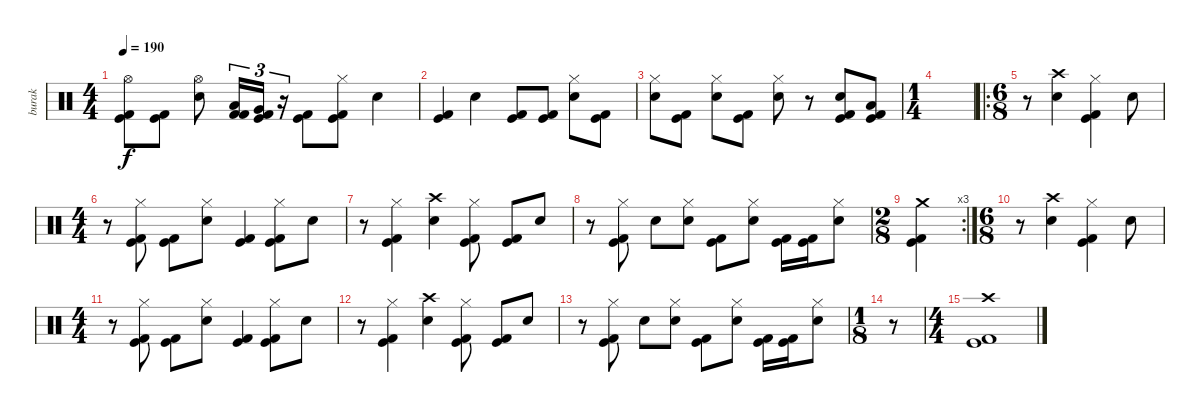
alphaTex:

\track ("burak" "burak") {instrument percussion}
\staff {score}
\articulation defaults
\ts (4 4)
\tempo 190
\clef neutral
\ks c
("Hi-Hat (open)" "Kick (hit)" "Kick (hit) 2").8{dy f} ("Kick (hit)" "Kick (hit) 2").8 ("Electric Snare (hit)" "Hi-Hat (open)").8 ("Low Tom (hit)" "Kick (hit) 2" "Kick (hit) 2").16{tu (3 2)} ("Very Low Tom (hit)" "Kick (hit)" "Kick (hit) 2").16{tu (3 2)} r.16{tu (3 2)} ("Kick (hit)" "Kick (hit) 2").8 ("Hi-Hat (closed)" "Kick (hit)" "Kick (hit) 2").8 "Electric Snare (hit)".4 |
("Kick (hit)" "Kick (hit) 2").4 "Electric Snare (hit)".4 ("Kick (hit)" "Kick (hit) 2").8 ("Kick (hit)" "Kick (hit) 2").8 ("Hi-Hat (closed)" "Electric Snare (hit)").8 ("Kick (hit)" "Kick (hit) 2").8 |
("Hi-Hat (closed)" "Electric Snare (hit)").8 ("Kick (hit)" "Kick (hit) 2").8 ("Hi-Hat (closed)" "Electric Snare (hit)").8 ("Kick (hit)" "Kick (hit) 2").8 ("Hi-Hat (closed)" "Electric Snare (hit)").8 r.8 ("Electric Snare (hit)" "Kick (hit)" "Kick (hit) 2").8 ("Low Tom (hit)" "Kick (hit)" "Kick (hit) 2").8 |
\ts (1 4)
|
\ro
\ts (6 8)
r.8 ("Electric Snare (hit)" "Crash high (hit)").4 ("Hi-Hat (closed)" "Kick (hit)" "Kick (hit) 2").4 "Electric Snare (hit)".8 |
\ts (4 4)
r.8 ("Hi-Hat (closed)" "Kick (hit)" "Kick (hit) 2").8 ("Kick (hit)" "Kick (hit) 2").8 ("Electric Snare (hit)" "Hi-Hat (closed)").8 ("Kick (hit)" "Kick (hit) 2").4 ("Hi-Hat (closed)" "Kick (hit)" "Kick (hit) 2").8 "Electric Snare (hit)".8 |
r.8 ("Hi-Hat (closed)" "Kick (hit)" "Kick (hit) 2").4 ("Electric Snare (hit)" "Crash high (hit)").4 ("Hi-Hat (closed)" "Kick (hit)" "Kick (hit) 2").8 ("Kick (hit)" "Kick (hit) 2").8 "Electric Snare (hit)".8 |
r.8 ("Hi-Hat (closed)" "Kick (hit)" "Kick (hit) 2").8 "Electric Snare (hit)".8 ("Electric Snare (hit)" "Hi-Hat (closed)").8 ("Kick (hit)" "Kick (hit) 2").8 ("Electric Snare (hit)" "Hi-Hat (closed)").8 ("Kick (hit)" "Kick (hit) 2").16 ("Kick (hit)" "Kick (hit) 2").16 ("Hi-Hat (closed)" "Electric Snare (hit)").8 |
\rc 3
\ts (2 8)
("Crash medium (hit)" "Kick (hit)" "Kick (hit) 2").4 |
\ts (6 8)
r.8 ("Electric Snare (hit)" "Crash high (hit)").4 ("Hi-Hat (closed)" "Kick (hit)" "Kick (hit) 2").4 "Electric Snare (hit)".8 |
\ts (4 4)
r.8 ("Hi-Hat (closed)" "Kick (hit)" "Kick (hit) 2").8 ("Kick (hit)" "Kick (hit) 2").8 ("Electric Snare (hit)" "Hi-Hat (closed)").8 ("Kick (hit)" "Kick (hit) 2").4 ("Hi-Hat (closed)" "Kick (hit)" "Kick (hit) 2").8 "Electric Snare (hit)".8 |
r.8 ("Hi-Hat (closed)" "Kick (hit)" "Kick (hit) 2").4 ("Electric Snare (hit)" "Crash high (hit)").4 ("Hi-Hat (closed)" "Kick (hit)" "Kick (hit) 2").8 ("Kick (hit)" "Kick (hit) 2").8 "Electric Snare (hit)".8 |
r.8 ("Hi-Hat (closed)" "Kick (hit)" "Kick (hit) 2").8 "Electric Snare (hit)".8 ("Electric Snare (hit)" "Hi-Hat (closed)").8 ("Kick (hit)" "Kick (hit) 2").8 ("Electric Snare (hit)" "Hi-Hat (closed)").8 ("Kick (hit)" "Kick (hit) 2").16 ("Kick (hit)" "Kick (hit) 2").16 ("Hi-Hat (closed)" "Electric Snare (hit)").8 |
\ts (1 8)
r.8 |
\ts (4 4)
("Crash high (hit)" "Kick (hit)" "Kick (hit) 2").1
